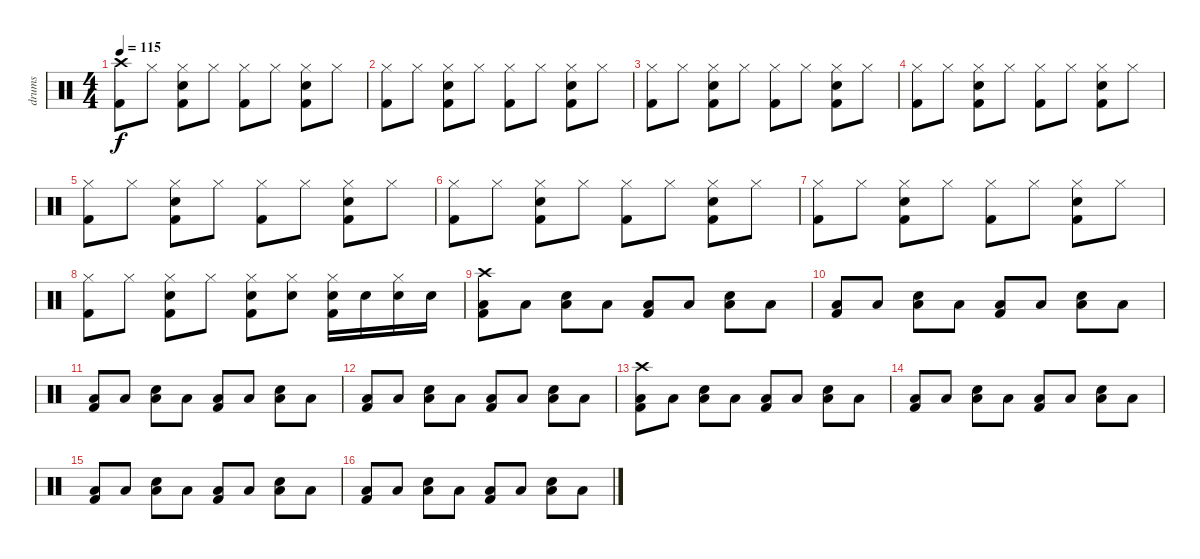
\track ("drums" "drums") {instrument percussion}
\staff {score}
\articulation defaults
\ts (4 4)
\tempo 115
\clef neutral
\ks c
("Crash high (hit)" "Kick (hit) 2").8{dy f} "Hi-Hat (closed)".8 ("Hi-Hat (closed)" "Electric Snare (hit)" "Kick (hit) 2").8 "Hi-Hat (closed)".8 ("Hi-Hat (closed)" "Kick (hit) 2").8 "Hi-Hat (closed)".8 ("Hi-Hat (closed)" "Electric Snare (hit)" "Kick (hit) 2").8 "Hi-Hat (closed)".8 |
("Hi-Hat (closed)" "Kick (hit) 2").8 "Hi-Hat (closed)".8 ("Hi-Hat (closed)" "Electric Snare (hit)" "Kick (hit) 2").8 "Hi-Hat (closed)".8 ("Hi-Hat (closed)" "Kick (hit) 2").8 "Hi-Hat (closed)".8 ("Hi-Hat (closed)" "Electric Snare (hit)" "Kick (hit) 2").8 "Hi-Hat (closed)".8 |
("Hi-Hat (closed)" "Kick (hit) 2").8 "Hi-Hat (closed)".8 ("Hi-Hat (closed)" "Electric Snare (hit)" "Kick (hit) 2").8 "Hi-Hat (closed)".8 ("Hi-Hat (closed)" "Kick (hit) 2").8 "Hi-Hat (closed)".8 ("Hi-Hat (closed)" "Electric Snare (hit)" "Kick (hit) 2").8 "Hi-Hat (closed)".8 |
("Hi-Hat (closed)" "Kick (hit) 2").8 "Hi-Hat (closed)".8 ("Hi-Hat (closed)" "Electric Snare (hit)" "Kick (hit) 2").8 "Hi-Hat (closed)".8 ("Hi-Hat (closed)" "Kick (hit) 2").8 "Hi-Hat (closed)".8 ("Hi-Hat (closed)" "Electric Snare (hit)" "Kick (hit) 2").8 "Hi-Hat (closed)".8 |
("Hi-Hat (closed)" "Kick (hit) 2").8 "Hi-Hat (closed)".8 ("Hi-Hat (closed)" "Electric Snare (hit)" "Kick (hit) 2").8 "Hi-Hat (closed)".8 ("Hi-Hat (closed)" "Kick (hit) 2").8 "Hi-Hat (closed)".8 ("Hi-Hat (closed)" "Electric Snare (hit)" "Kick (hit) 2").8 "Hi-Hat (closed)".8 |
("Hi-Hat (closed)" "Kick (hit) 2").8 "Hi-Hat (closed)".8 ("Hi-Hat (closed)" "Electric Snare (hit)" "Kick (hit) 2").8 "Hi-Hat (closed)".8 ("Hi-Hat (closed)" "Kick (hit) 2").8 "Hi-Hat (closed)".8 ("Hi-Hat (closed)" "Electric Snare (hit)" "Kick (hit) 2").8 "Hi-Hat (closed)".8 |
("Hi-Hat (closed)" "Kick (hit) 2").8 "Hi-Hat (closed)".8 ("Hi-Hat (closed)" "Electric Snare (hit)" "Kick (hit) 2").8 "Hi-Hat (closed)".8 ("Hi-Hat (closed)" "Kick (hit) 2").8 "Hi-Hat (closed)".8 ("Hi-Hat (closed)" "Electric Snare (hit)" "Kick (hit) 2").8 "Hi-Hat (closed)".8 |
("Hi-Hat (closed)" "Kick (hit) 2").8 "Hi-Hat (closed)".8 ("Hi-Hat (closed)" "Electric Snare (hit)" "Kick (hit) 2").8 "Hi-Hat (closed)".8 ("Hi-Hat (closed)" "Electric Snare (hit)" "Kick (hit) 2").8 ("Hi-Hat (closed)" "Electric Snare (hit)").8 ("Hi-Hat (closed)" "Electric Snare (hit)" "Kick (hit) 2").16 "Electric Snare (hit)".16 ("Hi-Hat (closed)" "Electric Snare (hit)").16 "Electric Snare (hit)".16 |
("Crash high (hit)" "Low Floor Tom (hit)" "Kick (hit) 2").8 "Low Floor Tom (hit)".8 ("Low Floor Tom (hit)" "Electric Snare (hit)").8 "Low Floor Tom (hit)".8 ("Low Floor Tom (hit)" "Kick (hit) 2").8 "Low Floor Tom (hit)".8 ("Low Floor Tom (hit)" "Electric Snare (hit)").8 "Low Floor Tom (hit)".8 |
("Low Floor Tom (hit)" "Kick (hit) 2").8 "Low Floor Tom (hit)".8 ("Low Floor Tom (hit)" "Electric Snare (hit)").8 "Low Floor Tom (hit)".8 ("Low Floor Tom (hit)" "Kick (hit) 2").8 "Low Floor Tom (hit)".8 ("Low Floor Tom (hit)" "Electric Snare (hit)").8 "Low Floor Tom (hit)".8 |
("Low Floor Tom (hit)" "Kick (hit) 2").8 "Low Floor Tom (hit)".8 ("Low Floor Tom (hit)" "Electric Snare (hit)").8 "Low Floor Tom (hit)".8 ("Low Floor Tom (hit)" "Kick (hit) 2").8 "Low Floor Tom (hit)".8 ("Low Floor Tom (hit)" "Electric Snare (hit)").8 "Low Floor Tom (hit)".8 |
("Low Floor Tom (hit)" "Kick (hit) 2").8 "Low Floor Tom (hit)".8 ("Low Floor Tom (hit)" "Electric Snare (hit)").8 "Low Floor Tom (hit)".8 ("Low Floor Tom (hit)" "Kick (hit) 2").8 "Low Floor Tom (hit)".8 ("Low Floor Tom (hit)" "Electric Snare (hit)").8 "Low Floor Tom (hit)".8 |
("Crash high (hit)" "Low Floor Tom (hit)" "Kick (hit) 2").8 "Low Floor Tom (hit)".8 ("Low Floor Tom (hit)" "Electric Snare (hit)").8 "Low Floor Tom (hit)".8 ("Low Floor Tom (hit)" "Kick (hit) 2").8 "Low Floor Tom (hit)".8 ("Low Floor Tom (hit)" "Electric Snare (hit)").8 "Low Floor Tom (hit)".8 |
("Low Floor Tom (hit)" "Kick (hit) 2").8 "Low Floor Tom (hit)".8 ("Low Floor Tom (hit)" "Electric Snare (hit)").8 "Low Floor Tom (hit)".8 ("Low Floor Tom (hit)" "Kick (hit) 2").8 "Low Floor Tom (hit)".8 ("Low Floor Tom (hit)" "Electric Snare (hit)").8 "Low Floor Tom (hit)".8 |
("Low Floor Tom (hit)" "Kick (hit) 2").8 "Low Floor Tom (hit)".8 ("Low Floor Tom (hit)" "Electric Snare (hit)").8 "Low Floor Tom (hit)".8 ("Low Floor Tom (hit)" "Kick (hit) 2").8 "Low Floor Tom (hit)".8 ("Low Floor Tom (hit)" "Electric Snare (hit)").8 "Low Floor Tom (hit)".8 |
("Low Floor Tom (hit)" "Kick (hit) 2").8 "Low Floor Tom (hit)".8 ("Low Floor Tom (hit)" "Electric Snare (hit)").8 "Low Floor Tom (hit)".8 ("Low Floor Tom (hit)" "Kick (hit) 2").8 "Low Floor Tom (hit)".8 ("Low Floor Tom (hit)" "Electric Snare (hit)").8 "Low Floor Tom (hit)".8
